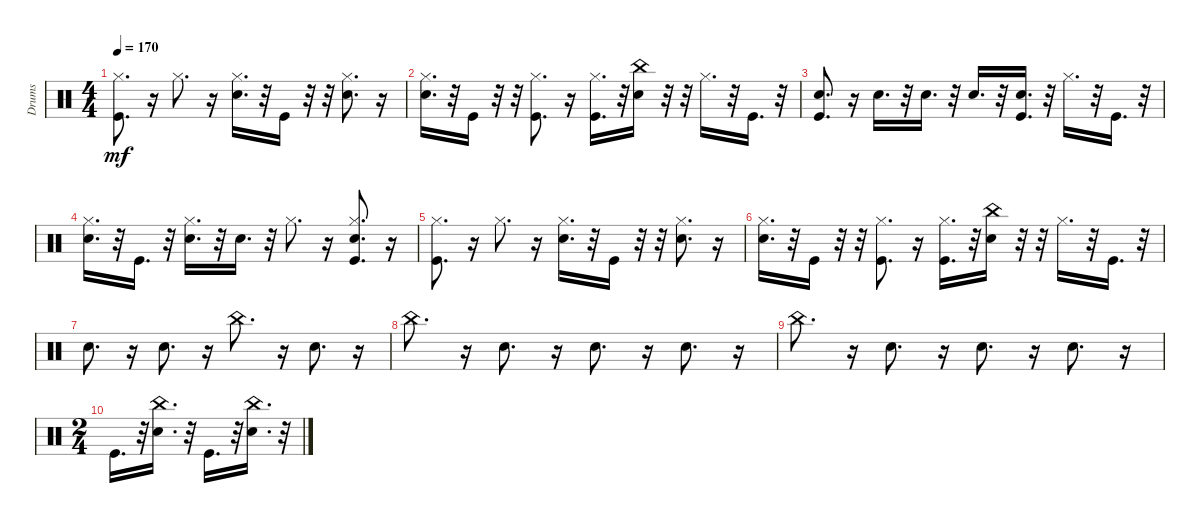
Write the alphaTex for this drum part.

\track ("Drums" "Drums") {instrument percussion}
\staff {score}
\articulation defaults
\ts (4 4)
\tempo 170
\clef neutral
\ks c
("Kick (hit)" "Hi-Hat (closed)").8{d dy mf} r.16 "Hi-Hat (closed)".8{d} r.16 ("Snare (hit) 2" "Hi-Hat (closed)").16{d} r.32 "Kick (hit)".16 r.32 r.32 ("Snare (hit) 2" "Hi-Hat (closed)").8{d} r.16 |
("Snare (hit) 2" "Hi-Hat (closed)").16{d} r.32 "Kick (hit)".16 r.32 r.32 ("Kick (hit)" "Hi-Hat (closed)").8{d} r.16 ("Kick (hit)" "Hi-Hat (closed)").16{d} r.32 ("Snare (hit) 2" "China (hit)").16 r.32 r.32 "Hi-Hat (closed)".16{d} r.32 "Kick (hit)".16{d} r.32 |
("Kick (hit)" "Snare (hit) 2").8{d} r.16 "Snare (hit) 2".16{d} r.32 "Snare (hit) 2".16{d} r.32 "Snare (hit) 2".16{d} r.32 ("Kick (hit)" "Snare (hit) 2").16{d} r.32 "Hi-Hat (closed)".16{d} r.32 "Kick (hit)".16{d} r.32 |
("Snare (hit) 2" "Hi-Hat (closed)").16{d} r.32 "Kick (hit)".16{d} r.32 ("Snare (hit) 2" "Hi-Hat (closed)").16{d} r.32 "Snare (hit) 2".16{d} r.32 "Hi-Hat (closed)".8{d} r.16 ("Kick (hit)" "Snare (hit) 2" "Hi-Hat (closed)").8{d} r.16 |
("Kick (hit)" "Hi-Hat (closed)").8{d} r.16 "Hi-Hat (closed)".8{d} r.16 ("Snare (hit) 2" "Hi-Hat (closed)").16{d} r.32 "Kick (hit)".16 r.32 r.32 ("Snare (hit) 2" "Hi-Hat (closed)").8{d} r.16 |
("Snare (hit) 2" "Hi-Hat (closed)").16{d} r.32 "Kick (hit)".16 r.32 r.32 ("Kick (hit)" "Hi-Hat (closed)").8{d} r.16 ("Kick (hit)" "Hi-Hat (closed)").16{d} r.32 ("Snare (hit) 2" "China (hit)").16 r.32 r.32 "Hi-Hat (closed)".16{d} r.32 "Kick (hit)".16{d} r.32 |
"Snare (hit) 2".8{d} r.16 "Snare (hit) 2".8{d} r.16 "China (hit)".8{d} r.16 "Snare (hit) 2".8{d} r.16 |
"China (hit)".8{d} r.16 "Snare (hit) 2".8{d} r.16 "Snare (hit) 2".8{d} r.16 "Snare (hit) 2".8{d} r.16 |
"China (hit)".8{d} r.16 "Snare (hit) 2".8{d} r.16 "Snare (hit) 2".8{d} r.16 "Snare (hit) 2".8{d} r.16 |
\ts (2 4)
"Kick (hit)".16{d} r.32 ("Snare (hit) 2" "China (hit)").16{d} r.32 "Kick (hit)".16{d} r.32 ("Snare (hit) 2" "China (hit)").16{d} r.32
